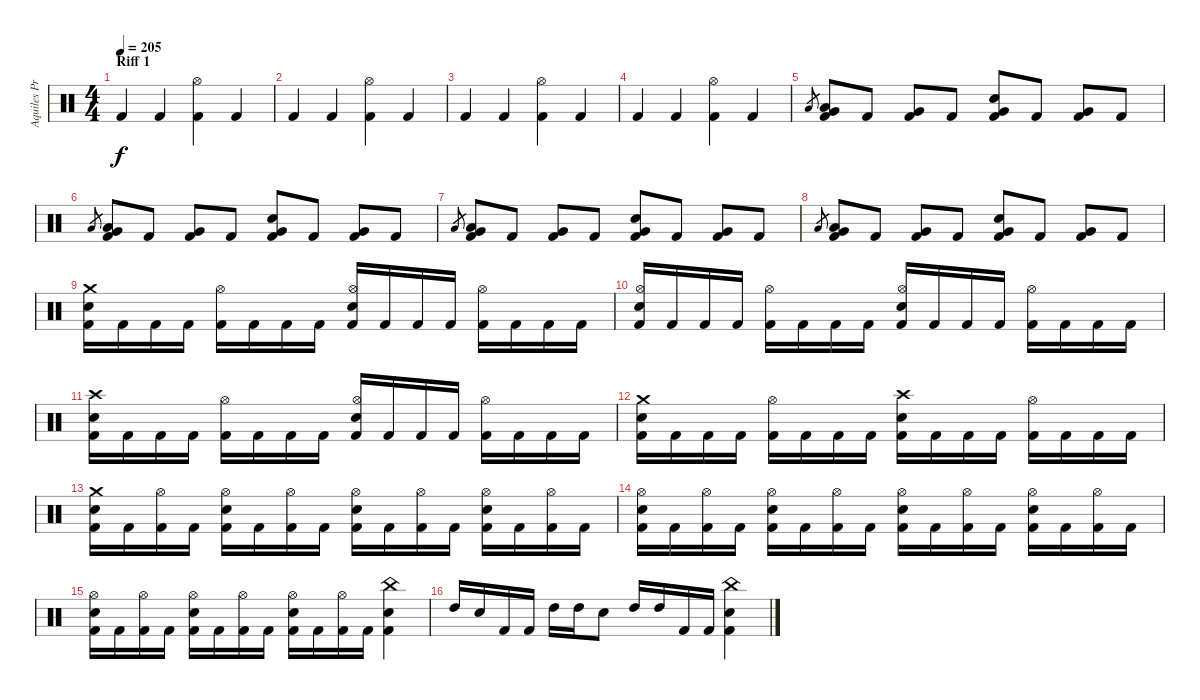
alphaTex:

\track ("Aquiles Priester" "Aquiles Pr") {instrument percussion}
\staff {score}
\articulation defaults
\ts (4 4)
\section ("" "Riff 1")
\tempo 205
\clef neutral
\ks c "Kick (hit) 2".4{dy f} "Kick (hit) 2".4
("Hi-Hat (open)" "Kick (hit) 2").4 "Kick (hit) 2".4 |
"Kick (hit) 2".4 "Kick (hit) 2".4 ("Hi-Hat (open)" "Kick (hit) 2").4 "Kick (hit) 2".4 |
"Kick (hit) 2".4 "Kick (hit) 2".4 ("Hi-Hat (open)" "Kick (hit) 2").4 "Kick (hit) 2".4 |
"Kick (hit) 2".4 "Kick (hit) 2".4 ("Hi-Hat (open)" "Kick (hit) 2").4 "Kick (hit) 2".4 |
"Low Tom (hit)".8{gr} ("Low Tom (hit)" "Very Low Tom (hit)" "Kick (hit) 2").8 "Kick (hit) 2".8 ("Very Low Tom (hit)" "Kick (hit) 2").8 "Kick (hit) 2".8 ("Very Low Tom (hit)" "Electric Snare (hit)" "Kick (hit) 2").8 "Kick (hit) 2".8 ("Very Low Tom (hit)" "Kick (hit) 2").8 "Kick (hit) 2".8 |
"Low Tom (hit)".8{gr} ("Low Tom (hit)" "Very Low Tom (hit)" "Kick (hit) 2").8 "Kick (hit) 2".8 ("Very Low Tom (hit)" "Kick (hit) 2").8 "Kick (hit) 2".8 ("Very Low Tom (hit)" "Electric Snare (hit)" "Kick (hit) 2").8 "Kick (hit) 2".8 ("Very Low Tom (hit)" "Kick (hit) 2").8 "Kick (hit) 2".8 |
"Low Tom (hit)".8{gr} ("Low Tom (hit)" "Very Low Tom (hit)" "Kick (hit) 2").8 "Kick (hit) 2".8 ("Very Low Tom (hit)" "Kick (hit) 2").8 "Kick (hit) 2".8 ("Very Low Tom (hit)" "Electric Snare (hit)" "Kick (hit) 2").8 "Kick (hit) 2".8 ("Very Low Tom (hit)" "Kick (hit) 2").8 "Kick (hit) 2".8 |
"Low Tom (hit)".8{gr} ("Low Tom (hit)" "Very Low Tom (hit)" "Kick (hit) 2").8 "Kick (hit) 2".8 ("Very Low Tom (hit)" "Kick (hit) 2").8 "Kick (hit) 2".8 ("Very Low Tom (hit)" "Electric Snare (hit)" "Kick (hit) 2").8 "Kick (hit) 2".8 ("Very Low Tom (hit)" "Kick (hit) 2").8 "Kick (hit) 2".8 |
("Crash medium (hit)" "Electric Snare (hit)" "Kick (hit) 2").16 "Kick (hit) 2".16 "Kick (hit) 2".16 "Kick (hit) 2".16 ("Hi-Hat (open)" "Kick (hit) 2").16 "Kick (hit) 2".16 "Kick (hit) 2".16 "Kick (hit) 2".16 ("Hi-Hat (open)" "Electric Snare (hit)" "Kick (hit) 2").16 "Kick (hit) 2".16 "Kick (hit) 2".16 "Kick (hit) 2".16 ("Hi-Hat (open)" "Kick (hit) 2").16 "Kick (hit) 2".16 "Kick (hit) 2".16 "Kick (hit) 2".16 |
("Hi-Hat (open)" "Electric Snare (hit)" "Kick (hit) 2").16 "Kick (hit) 2".16 "Kick (hit) 2".16 "Kick (hit) 2".16 ("Hi-Hat (open)" "Kick (hit) 2").16 "Kick (hit) 2".16 "Kick (hit) 2".16 "Kick (hit) 2".16 ("Hi-Hat (open)" "Electric Snare (hit)" "Kick (hit) 2").16 "Kick (hit) 2".16 "Kick (hit) 2".16 "Kick (hit) 2".16 ("Hi-Hat (open)" "Kick (hit) 2").16 "Kick (hit) 2".16 "Kick (hit) 2".16 "Kick (hit) 2".16 |
("Crash high (hit)" "Electric Snare (hit)" "Kick (hit) 2").16 "Kick (hit) 2".16 "Kick (hit) 2".16 "Kick (hit) 2".16 ("Hi-Hat (open)" "Kick (hit) 2").16 "Kick (hit) 2".16 "Kick (hit) 2".16 "Kick (hit) 2".16 ("Hi-Hat (open)" "Electric Snare (hit)" "Kick (hit) 2").16 "Kick (hit) 2".16 "Kick (hit) 2".16 "Kick (hit) 2".16 ("Hi-Hat (open)" "Kick (hit) 2").16 "Kick (hit) 2".16 "Kick (hit) 2".16 "Kick (hit) 2".16 |
("Crash medium (hit)" "Electric Snare (hit)" "Kick (hit) 2").16 "Kick (hit) 2".16 "Kick (hit) 2".16 "Kick (hit) 2".16 ("Hi-Hat (open)" "Kick (hit) 2").16 "Kick (hit) 2".16 "Kick (hit) 2".16 "Kick (hit) 2".16 ("Crash high (hit)" "Electric Snare (hit)" "Kick (hit) 2").16 "Kick (hit) 2".16 "Kick (hit) 2".16 "Kick (hit) 2".16 ("Hi-Hat (open)" "Kick (hit) 2").16 "Kick (hit) 2".16 "Kick (hit) 2".16 "Kick (hit) 2".16 |
("Crash medium (hit)" "Electric Snare (hit)" "Kick (hit) 2").16 "Kick (hit) 2".16 ("Hi-Hat (open)" "Kick (hit) 2").16 "Kick (hit) 2".16 ("Hi-Hat (open)" "Electric Snare (hit)" "Kick (hit) 2").16 "Kick (hit) 2".16 ("Hi-Hat (open)" "Kick (hit) 2").16 "Kick (hit) 2".16 ("Hi-Hat (open)" "Electric Snare (hit)" "Kick (hit) 2").16 "Kick (hit) 2".16 ("Hi-Hat (open)" "Kick (hit) 2").16 "Kick (hit) 2".16 ("Hi-Hat (open)" "Electric Snare (hit)" "Kick (hit) 2").16 "Kick (hit) 2".16 ("Hi-Hat (open)" "Kick (hit) 2").16 "Kick (hit) 2".16 |
("Hi-Hat (open)" "Electric Snare (hit)" "Kick (hit) 2").16 "Kick (hit) 2".16 ("Hi-Hat (open)" "Kick (hit) 2").16 "Kick (hit) 2".16 ("Hi-Hat (open)" "Electric Snare (hit)" "Kick (hit) 2").16 "Kick (hit) 2".16 ("Hi-Hat (open)" "Kick (hit) 2").16 "Kick (hit) 2".16 ("Hi-Hat (open)" "Electric Snare (hit)" "Kick (hit) 2").16 "Kick (hit) 2".16 ("Hi-Hat (open)" "Kick (hit) 2").16 "Kick (hit) 2".16 ("Hi-Hat (open)" "Electric Snare (hit)" "Kick (hit) 2").16 "Kick (hit) 2".16 ("Hi-Hat (open)" "Kick (hit) 2").16 "Kick (hit) 2".16 |
("Hi-Hat (open)" "Electric Snare (hit)" "Kick (hit) 2").16 "Kick (hit) 2".16 ("Hi-Hat (open)" "Kick (hit) 2").16 "Kick (hit) 2".16 ("Hi-Hat (open)" "Electric Snare (hit)" "Kick (hit) 2").16 "Kick (hit) 2".16 ("Hi-Hat (open)" "Kick (hit) 2").16 "Kick (hit) 2".16 ("Hi-Hat (open)" "Electric Snare (hit)" "Kick (hit) 2").16 "Kick (hit) 2".16 ("Hi-Hat (open)" "Kick (hit) 2").16 "Kick (hit) 2".16 ("China (hit)" "Electric Snare (hit)" "Kick (hit) 2").4 |
"High Tom (hit)".16 "Electric Snare (hit)".16 "Kick (hit) 2".16 "Kick (hit) 2".16 "High Tom (hit)".16 "High Tom (hit)".16 "Electric Snare (hit)".8 "High Tom (hit)".16 "High Tom (hit)".16 "Kick (hit) 2".16 "Kick (hit) 2".16 ("China (hit)" "Electric Snare (hit)" "Kick (hit) 2").4
